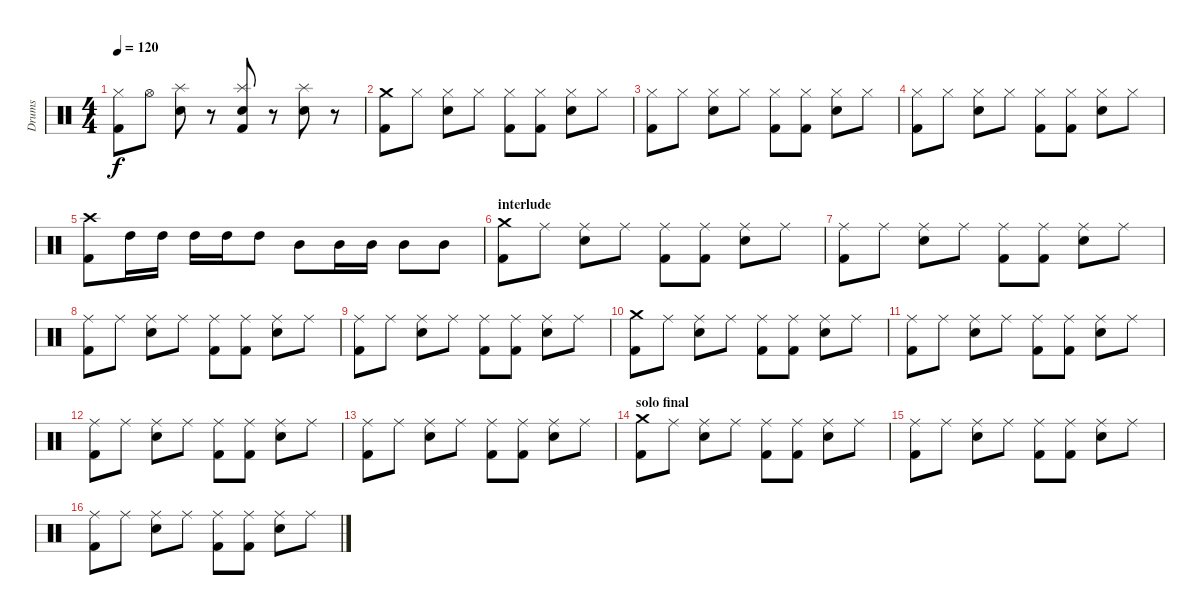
\track ("Drums" "Drums") {instrument percussion}
\staff {score}
\articulation defaults
\ts (4 4)
\tempo 120
\clef neutral
\ks c
("Hi-Hat (closed)" "Kick (hit) 2").8{dy f} "Hi-Hat (open)".8 ("Splash (hit)" "Snare (hit) 2").8 r.8 ("Splash (hit)" "Snare (hit) 2" "Kick (hit) 2").8 r.8 ("Splash (hit)" "Snare (hit) 2").8 r.8 |
("Crash medium (hit)" "Kick (hit) 2").8 "Hi-Hat (closed)".8 ("Hi-Hat (closed)" "Snare (hit) 2").8 "Hi-Hat (closed)".8 ("Hi-Hat (closed)" "Kick (hit) 2").8 ("Hi-Hat (closed)" "Kick (hit) 2").8 ("Hi-Hat (closed)" "Snare (hit) 2").8 "Hi-Hat (closed)".8 |
("Hi-Hat (closed)" "Kick (hit) 2").8 "Hi-Hat (closed)".8 ("Hi-Hat (closed)" "Snare (hit) 2").8 "Hi-Hat (closed)".8 ("Hi-Hat (closed)" "Kick (hit) 2").8 ("Hi-Hat (closed)" "Kick (hit) 2").8 ("Hi-Hat (closed)" "Snare (hit) 2").8 "Hi-Hat (closed)".8 |
("Hi-Hat (closed)" "Kick (hit) 2").8 "Hi-Hat (closed)".8 ("Hi-Hat (closed)" "Snare (hit) 2").8 "Hi-Hat (closed)".8 ("Hi-Hat (closed)" "Kick (hit) 2").8 ("Hi-Hat (closed)" "Kick (hit) 2").8 ("Hi-Hat (closed)" "Snare (hit) 2").8 "Hi-Hat (closed)".8 |
("Crash high (hit)" "Kick (hit) 2").8 "High Tom (hit)".16 "High Tom (hit)".16 "High Tom (hit)".16 "High Tom (hit)".16 "High Tom (hit)".8 "Mid Tom (hit)".8 "Mid Tom (hit)".16 "Mid Tom (hit)".16 "Mid Tom (hit)".8 "Mid Tom (hit)".8 |
\section ("" "interlude")
("Crash medium (hit)" "Kick (hit) 2").8 "Ride (middle)".8 ("Ride (middle)" "Snare (hit) 2").8 "Ride (middle)".8 ("Ride (middle)" "Kick (hit) 2").8 ("Ride (middle)" "Kick (hit) 2").8 ("Ride (middle)" "Snare (hit) 2").8 "Ride (middle)".8 |
("Ride (middle)" "Kick (hit) 2").8 "Ride (middle)".8 ("Ride (middle)" "Snare (hit) 2").8 "Ride (middle)".8 ("Ride (middle)" "Kick (hit) 2").8 ("Ride (middle)" "Kick (hit) 2").8 ("Ride (middle)" "Snare (hit) 2").8 "Ride (middle)".8 |
("Ride (middle)" "Kick (hit) 2").8 "Ride (middle)".8 ("Ride (middle)" "Snare (hit) 2").8 "Ride (middle)".8 ("Ride (middle)" "Kick (hit) 2").8 ("Ride (middle)" "Kick (hit) 2").8 ("Ride (middle)" "Snare (hit) 2").8 "Ride (middle)".8 |
("Ride (middle)" "Kick (hit) 2").8 "Ride (middle)".8 ("Ride (middle)" "Snare (hit) 2").8 "Ride (middle)".8 ("Ride (middle)" "Kick (hit) 2").8 ("Ride (middle)" "Kick (hit) 2").8 ("Ride (middle)" "Snare (hit) 2").8 "Ride (middle)".8 |
("Crash medium (hit)" "Kick (hit) 2").8 "Ride (middle)".8 ("Ride (middle)" "Snare (hit) 2").8 "Ride (middle)".8 ("Ride (middle)" "Kick (hit) 2").8 ("Ride (middle)" "Kick (hit) 2").8 ("Ride (middle)" "Snare (hit) 2").8 "Ride (middle)".8 |
("Ride (middle)" "Kick (hit) 2").8 "Ride (middle)".8 ("Ride (middle)" "Snare (hit) 2").8 "Ride (middle)".8 ("Ride (middle)" "Kick (hit) 2").8 ("Ride (middle)" "Kick (hit) 2").8 ("Ride (middle)" "Snare (hit) 2").8 "Ride (middle)".8 |
("Ride (middle)" "Kick (hit) 2").8 "Ride (middle)".8 ("Ride (middle)" "Snare (hit) 2").8 "Ride (middle)".8 ("Ride (middle)" "Kick (hit) 2").8 ("Ride (middle)" "Kick (hit) 2").8 ("Ride (middle)" "Snare (hit) 2").8 "Ride (middle)".8 |
("Ride (middle)" "Kick (hit) 2").8 "Ride (middle)".8 ("Ride (middle)" "Snare (hit) 2").8 "Ride (middle)".8 ("Ride (middle)" "Kick (hit) 2").8 ("Ride (middle)" "Kick (hit) 2").8 ("Ride (middle)" "Snare (hit) 2").8 "Ride (middle)".8 |
\section ("" "solo final")
("Crash medium (hit)" "Kick (hit) 2").8 "Ride (middle)".8 ("Ride (middle)" "Snare (hit) 2").8 "Ride (middle)".8 ("Ride (middle)" "Kick (hit) 2").8 ("Ride (middle)" "Kick (hit) 2").8 ("Ride (middle)" "Snare (hit) 2").8 "Ride (middle)".8 |
("Ride (middle)" "Kick (hit) 2").8 "Ride (middle)".8 ("Ride (middle)" "Snare (hit) 2").8 "Ride (middle)".8 ("Ride (middle)" "Kick (hit) 2").8 ("Ride (middle)" "Kick (hit) 2").8 ("Ride (middle)" "Snare (hit) 2").8 "Ride (middle)".8 |
("Ride (middle)" "Kick (hit) 2").8 "Ride (middle)".8 ("Ride (middle)" "Snare (hit) 2").8 "Ride (middle)".8 ("Ride (middle)" "Kick (hit) 2").8 ("Ride (middle)" "Kick (hit) 2").8 ("Ride (middle)" "Snare (hit) 2").8 "Ride (middle)".8
